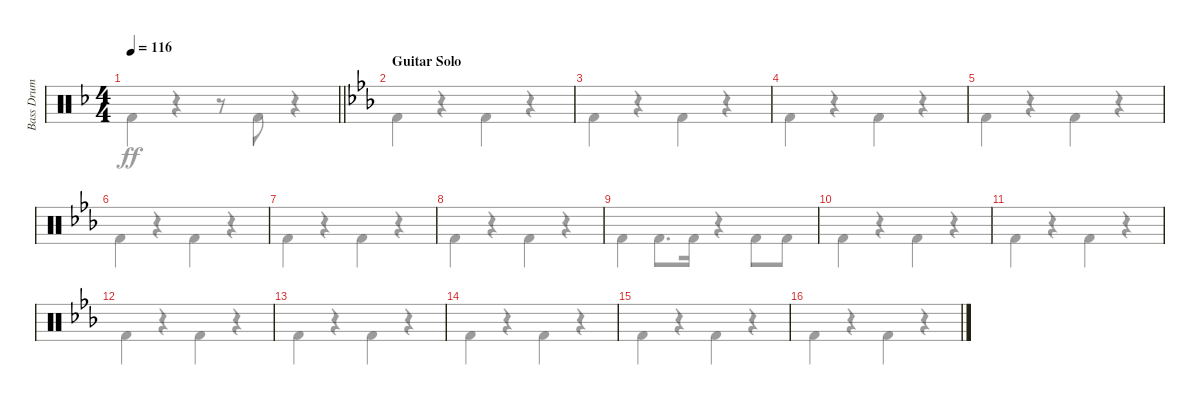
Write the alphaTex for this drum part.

\track ("Bass Drum" "Bass Drum") {instrument percussion}
\staff {score}
\articulation defaults
\voice
\ts (4 4)
\tempo 116
\clef neutral
\barLineRight lightlight
\ks f
|
\section ("" "Guitar Solo")
\ks eb
|
|
|
|
|
|
|
|
|
|
|
|
|
|
\voice
\clef neutral
\barLineRight lightlight
\ks f "Kick (hit) 2".4{dy ff}
r.4 r.8 "Kick (hit) 2".8 r.4 |
\ks eb "Kick (hit) 2".4
r.4 "Kick (hit) 2".4 r.4 |
"Kick (hit) 2".4 r.4 "Kick (hit) 2".4 r.4 |
"Kick (hit) 2".4 r.4 "Kick (hit) 2".4 r.4 |
"Kick (hit) 2".4 r.4 "Kick (hit) 2".4 r.4 |
"Kick (hit) 2".4 r.4 "Kick (hit) 2".4 r.4 |
"Kick (hit) 2".4 r.4 "Kick (hit) 2".4 r.4 |
"Kick (hit) 2".4 r.4 "Kick (hit) 2".4 r.4 |
"Kick (hit) 2".4 "Kick (hit) 2".8{d} "Kick (hit) 2".16 r.4 "Kick (hit) 2".8 "Kick (hit) 2".8 |
"Kick (hit) 2".4 r.4 "Kick (hit) 2".4 r.4 |
"Kick (hit) 2".4 r.4 "Kick (hit) 2".4 r.4 |
"Kick (hit) 2".4 r.4 "Kick (hit) 2".4 r.4 |
"Kick (hit) 2".4 r.4 "Kick (hit) 2".4 r.4 |
"Kick (hit) 2".4 r.4 "Kick (hit) 2".4 r.4 |
"Kick (hit) 2".4 r.4 "Kick (hit) 2".4 r.4 |
"Kick (hit) 2".4 r.4 "Kick (hit) 2".4 r.4
